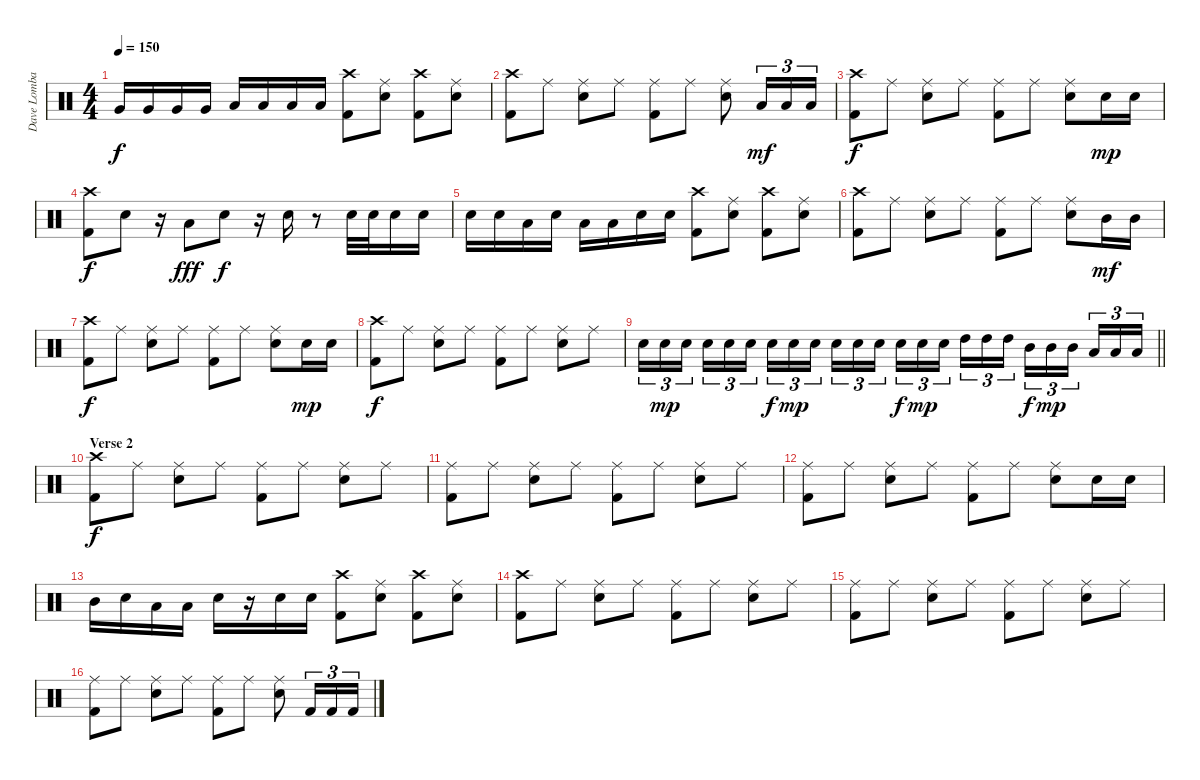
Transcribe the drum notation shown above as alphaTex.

\track ("Dave Lombardo (Drums)" "Dave Lomba") {instrument percussion}
\staff {score}
\articulation defaults
\ts (4 4)
\tempo 150
\clef neutral
\ks c "Very Low Tom (hit)".16{dy f} "Very Low Tom (hit)".16 "Very Low Tom (hit)".16 "Very Low Tom (hit)".16 "Low Floor Tom (hit)".16 "Low Floor Tom (hit)".16 "Low Floor Tom (hit)".16 "Low Floor Tom (hit)".16
("Crash high (hit)" "Kick (hit) 2").8 ("Ride (middle)" "Electric Snare (hit)").8 ("Crash high (hit)" "Kick (hit) 2").8 ("Ride (middle)" "Electric Snare (hit)").8 |
("Crash high (hit)" "Kick (hit) 2").8 "Ride (middle)".8 ("Ride (middle)" "Electric Snare (hit)").8 "Ride (middle)".8 ("Ride (middle)" "Kick (hit) 2").8 "Ride (middle)".8 ("Ride (middle)" "Electric Snare (hit)").8 "Low Tom (hit)".16{tu (3 2) dy mf} "Low Tom (hit)".16{tu (3 2)} "Low Tom (hit)".16{tu (3 2)} |
("Crash high (hit)" "Kick (hit) 2").8{dy f} "Ride (middle)".8 ("Ride (middle)" "Electric Snare (hit)").8 "Ride (middle)".8 ("Ride (middle)" "Kick (hit) 2").8 "Ride (middle)".8 ("Ride (middle)" "Electric Snare (hit)").8 "Electric Snare (hit)".16{dy mp} "Electric Snare (hit)".16 |
("Crash high (hit)" "Kick (hit) 2").8{dy f} "Electric Snare (hit)".8 r.16 "Low Floor Tom (hit)".8{dy fff} "Electric Snare (hit)".8{dy f} r.16 "Electric Snare (hit)".16 r.8 "Electric Snare (hit)".32 "Electric Snare (hit)".32 "Electric Snare (hit)".16 "Electric Snare (hit)".16 |
"Electric Snare (hit)".16 "Electric Snare (hit)".16 "Low Tom (hit)".16 "Electric Snare (hit)".16 "Low Tom (hit)".16 "Low Tom (hit)".16 "Electric Snare (hit)".16 "Electric Snare (hit)".16 ("Crash high (hit)" "Kick (hit) 2").8 ("Ride (middle)" "Electric Snare (hit)").8 ("Crash high (hit)" "Kick (hit) 2").8 ("Ride (middle)" "Electric Snare (hit)").8 |
("Crash high (hit)" "Kick (hit) 2").8 "Ride (middle)".8 ("Ride (middle)" "Electric Snare (hit)").8 "Ride (middle)".8 ("Ride (middle)" "Kick (hit) 2").8 "Ride (middle)".8 ("Ride (middle)" "Electric Snare (hit)").8 "Mid Tom (hit)".16{dy mf} "Mid Tom (hit)".16 |
("Crash high (hit)" "Kick (hit) 2").8{dy f} "Ride (middle)".8 ("Ride (middle)" "Electric Snare (hit)").8 "Ride (middle)".8 ("Ride (middle)" "Kick (hit) 2").8 "Ride (middle)".8 ("Ride (middle)" "Electric Snare (hit)").8 "Electric Snare (hit)".16{dy mp} "Electric Snare (hit)".16 |
("Crash high (hit)" "Kick (hit) 2").8{dy f} "Ride (middle)".8 ("Ride (middle)" "Electric Snare (hit)").8 "Ride (middle)".8 ("Ride (middle)" "Kick (hit) 2").8 "Ride (middle)".8 ("Ride (middle)" "Electric Snare (hit)").8 "Ride (middle)".8 |
\barLineRight lightlight "Electric Snare (hit)".16{tu (3 2)} "Electric Snare (hit)".16{tu (3 2) dy mp} "Electric Snare (hit)".16{tu (3 2) beam splitsecondary} "Electric Snare (hit)".16{tu (3 2)} "Electric Snare (hit)".16{tu (3 2)} "Electric Snare (hit)".16{tu (3 2)} "Electric Snare (hit)".16{tu (3 2) dy f} "Electric Snare (hit)".16{tu (3 2) dy mp} "Electric Snare (hit)".16{tu (3 2) beam splitsecondary} "Electric Snare (hit)".16{tu (3 2)} "Electric Snare (hit)".16{tu (3 2)} "Electric Snare (hit)".16{tu (3 2)} "Electric Snare (hit)".16{tu (3 2) dy f} "Electric Snare (hit)".16{tu (3 2) dy mp} "Electric Snare (hit)".16{tu (3 2) beam splitsecondary} "High Tom (hit)".16{tu (3 2)} "High Tom (hit)".16{tu (3 2)} "High Tom (hit)".16{tu (3 2)} "Mid Tom (hit)".16{tu (3 2) dy f} "Mid Tom (hit)".16{tu (3 2) dy mp} "Mid Tom (hit)".16{tu (3 2) beam splitsecondary} "Low Tom (hit)".16{tu (3 2)} "Low Tom (hit)".16{tu (3 2)} "Low Tom (hit)".16{tu (3 2)}
|
\section ("" "Verse 2")
("Crash high (hit)" "Kick (hit) 2").8{dy f} "Ride (middle)".8 ("Ride (middle)" "Electric Snare (hit)").8 "Ride (middle)".8 ("Ride (middle)" "Kick (hit) 2").8 "Ride (middle)".8 ("Ride (middle)" "Electric Snare (hit)").8 "Ride (middle)".8 |
("Ride (middle)" "Kick (hit) 2").8 "Ride (middle)".8 ("Ride (middle)" "Electric Snare (hit)").8 "Ride (middle)".8 ("Ride (middle)" "Kick (hit) 2").8 "Ride (middle)".8 ("Ride (middle)" "Electric Snare (hit)").8 "Ride (middle)".8 |
("Ride (middle)" "Kick (hit) 2").8 "Ride (middle)".8 ("Ride (middle)" "Electric Snare (hit)").8 "Ride (middle)".8 ("Ride (middle)" "Kick (hit) 2").8 "Ride (middle)".8 ("Ride (middle)" "Electric Snare (hit)").8 "Electric Snare (hit)".16 "Electric Snare (hit)".16 |
"Mid Tom (hit)".16 "Electric Snare (hit)".16 "Low Tom (hit)".16 "Low Tom (hit)".16 "Electric Snare (hit)".16 r.16 "Electric Snare (hit)".16 "Electric Snare (hit)".16 ("Crash high (hit)" "Kick (hit) 2").8 ("Ride (middle)" "Electric Snare (hit)").8 ("Crash high (hit)" "Kick (hit) 2").8 ("Ride (middle)" "Electric Snare (hit)").8 |
("Crash high (hit)" "Kick (hit) 2").8 "Ride (middle)".8 ("Ride (middle)" "Electric Snare (hit)").8 "Ride (middle)".8 ("Ride (middle)" "Kick (hit) 2").8 "Ride (middle)".8 ("Ride (middle)" "Electric Snare (hit)").8 "Ride (middle)".8 |
("Ride (middle)" "Kick (hit) 2").8 "Ride (middle)".8 ("Ride (middle)" "Electric Snare (hit)").8 "Ride (middle)".8 ("Ride (middle)" "Kick (hit) 2").8 "Ride (middle)".8 ("Ride (middle)" "Electric Snare (hit)").8 "Ride (middle)".8 |
("Ride (middle)" "Kick (hit) 2").8 "Ride (middle)".8 ("Ride (middle)" "Electric Snare (hit)").8 "Ride (middle)".8 ("Ride (middle)" "Kick (hit) 2").8 "Ride (middle)".8 ("Ride (middle)" "Electric Snare (hit)").8 "Kick (hit) 2".16{tu (3 2)} "Kick (hit) 2".16{tu (3 2)} "Kick (hit) 2".16{tu (3 2)}
